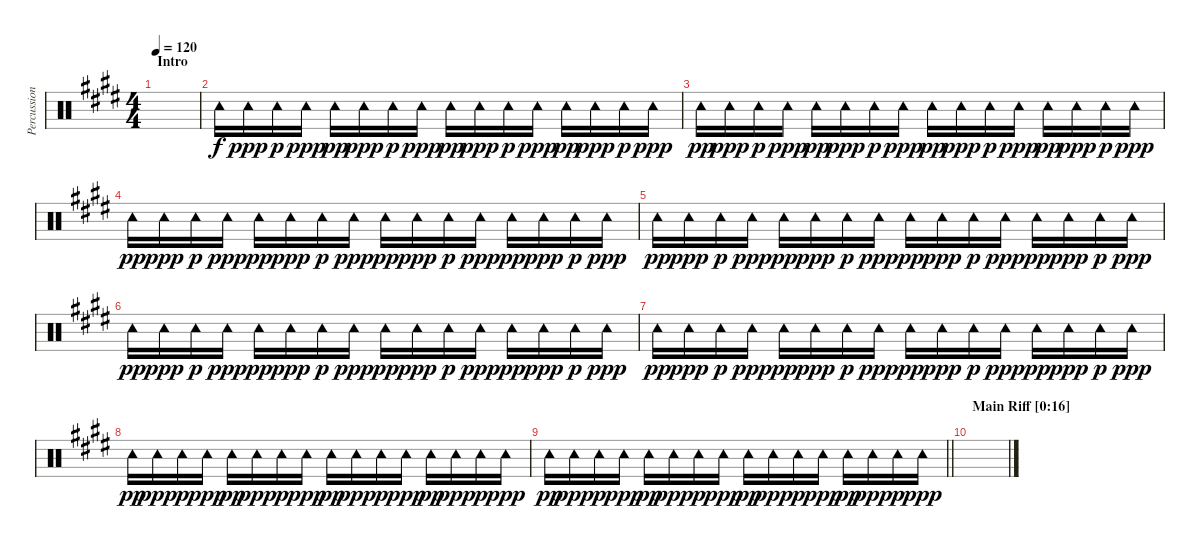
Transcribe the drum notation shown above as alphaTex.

\track ("Percussion" "Percussion") {instrument percussion}
\staff {score}
\articulation defaults
\ts (4 4)
\section ("" "Intro")
\tempo 120
\clef neutral
\ks c#minor
|
"Tambourine (hit)".16 "Tambourine (hit)".16{dy ppp} "Tambourine (hit)".16{dy p} "Tambourine (hit)".16{dy ppp} "Tambourine (hit)".16{dy pp} "Tambourine (hit)".16{dy ppp} "Tambourine (hit)".16{dy p} "Tambourine (hit)".16{dy ppp} "Tambourine (hit)".16{dy pp} "Tambourine (hit)".16{dy ppp} "Tambourine (hit)".16{dy p} "Tambourine (hit)".16{dy ppp} "Tambourine (hit)".16{dy pp} "Tambourine (hit)".16{dy ppp} "Tambourine (hit)".16{dy p} "Tambourine (hit)".16{dy ppp} |
"Tambourine (hit)".16{dy pp} "Tambourine (hit)".16{dy ppp} "Tambourine (hit)".16{dy p} "Tambourine (hit)".16{dy ppp} "Tambourine (hit)".16{dy pp} "Tambourine (hit)".16{dy ppp} "Tambourine (hit)".16{dy p} "Tambourine (hit)".16{dy ppp} "Tambourine (hit)".16{dy pp} "Tambourine (hit)".16{dy ppp} "Tambourine (hit)".16{dy p} "Tambourine (hit)".16{dy ppp} "Tambourine (hit)".16{dy pp} "Tambourine (hit)".16{dy ppp} "Tambourine (hit)".16{dy p} "Tambourine (hit)".16{dy ppp} |
"Tambourine (hit)".16{dy pp} "Tambourine (hit)".16{dy ppp} "Tambourine (hit)".16{dy p} "Tambourine (hit)".16{dy ppp} "Tambourine (hit)".16{dy pp} "Tambourine (hit)".16{dy ppp} "Tambourine (hit)".16{dy p} "Tambourine (hit)".16{dy ppp} "Tambourine (hit)".16{dy pp} "Tambourine (hit)".16{dy ppp} "Tambourine (hit)".16{dy p} "Tambourine (hit)".16{dy ppp} "Tambourine (hit)".16{dy pp} "Tambourine (hit)".16{dy ppp} "Tambourine (hit)".16{dy p} "Tambourine (hit)".16{dy ppp} |
"Tambourine (hit)".16{dy pp} "Tambourine (hit)".16{dy ppp} "Tambourine (hit)".16{dy p} "Tambourine (hit)".16{dy ppp} "Tambourine (hit)".16{dy pp} "Tambourine (hit)".16{dy ppp} "Tambourine (hit)".16{dy p} "Tambourine (hit)".16{dy ppp} "Tambourine (hit)".16{dy pp} "Tambourine (hit)".16{dy ppp} "Tambourine (hit)".16{dy p} "Tambourine (hit)".16{dy ppp} "Tambourine (hit)".16{dy pp} "Tambourine (hit)".16{dy ppp} "Tambourine (hit)".16{dy p} "Tambourine (hit)".16{dy ppp} |
"Tambourine (hit)".16{dy pp} "Tambourine (hit)".16{dy ppp} "Tambourine (hit)".16{dy p} "Tambourine (hit)".16{dy ppp} "Tambourine (hit)".16{dy pp} "Tambourine (hit)".16{dy ppp} "Tambourine (hit)".16{dy p} "Tambourine (hit)".16{dy ppp} "Tambourine (hit)".16{dy pp} "Tambourine (hit)".16{dy ppp} "Tambourine (hit)".16{dy p} "Tambourine (hit)".16{dy ppp} "Tambourine (hit)".16{dy pp} "Tambourine (hit)".16{dy ppp} "Tambourine (hit)".16{dy p} "Tambourine (hit)".16{dy ppp} |
"Tambourine (hit)".16{dy pp} "Tambourine (hit)".16{dy ppp} "Tambourine (hit)".16{dy p} "Tambourine (hit)".16{dy ppp} "Tambourine (hit)".16{dy pp} "Tambourine (hit)".16{dy ppp} "Tambourine (hit)".16{dy p} "Tambourine (hit)".16{dy ppp} "Tambourine (hit)".16{dy pp} "Tambourine (hit)".16{dy ppp} "Tambourine (hit)".16{dy p} "Tambourine (hit)".16{dy ppp} "Tambourine (hit)".16{dy pp} "Tambourine (hit)".16{dy ppp} "Tambourine (hit)".16{dy p} "Tambourine (hit)".16{dy ppp} |
"Tambourine (hit)".16{dy pp} "Tambourine (hit)".16{dy ppp} "Tambourine (hit)".16{dy p} "Tambourine (hit)".16{dy ppp} "Tambourine (hit)".16{dy pp} "Tambourine (hit)".16{dy ppp} "Tambourine (hit)".16{dy p} "Tambourine (hit)".16{dy ppp} "Tambourine (hit)".16{dy pp} "Tambourine (hit)".16{dy ppp} "Tambourine (hit)".16{dy p} "Tambourine (hit)".16{dy ppp} "Tambourine (hit)".16{dy pp} "Tambourine (hit)".16{dy ppp} "Tambourine (hit)".16{dy p} "Tambourine (hit)".16{dy ppp} |
\barLineRight lightlight "Tambourine (hit)".16{dy pp} "Tambourine (hit)".16{dy ppp} "Tambourine (hit)".16{dy p} "Tambourine (hit)".16{dy ppp} "Tambourine (hit)".16{dy pp} "Tambourine (hit)".16{dy ppp} "Tambourine (hit)".16{dy p} "Tambourine (hit)".16{dy ppp} "Tambourine (hit)".16{dy pp} "Tambourine (hit)".16{dy ppp} "Tambourine (hit)".16{dy p} "Tambourine (hit)".16{dy ppp} "Tambourine (hit)".16{dy pp} "Tambourine (hit)".16{dy ppp} "Tambourine (hit)".16{dy p} "Tambourine (hit)".16{dy ppp}
|
\section ("" "Main Riff [0:16]")
